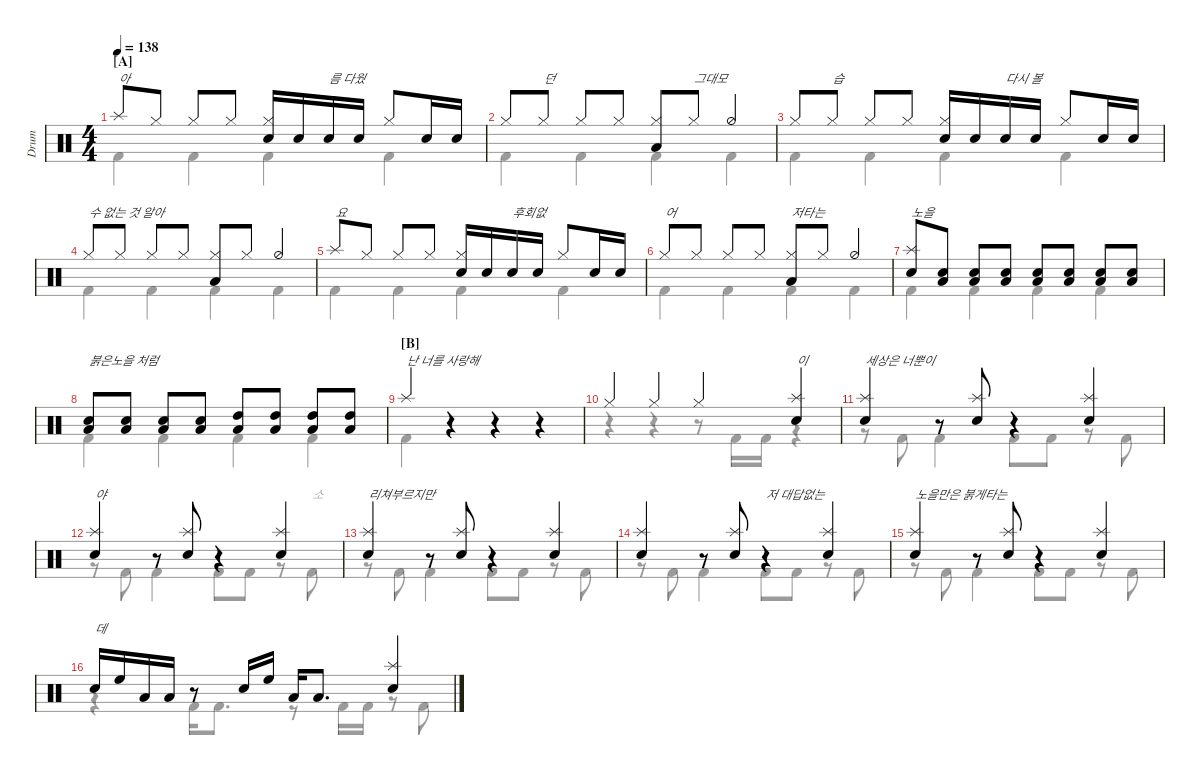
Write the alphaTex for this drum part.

\defaultSystemsLayout 4
\hideDynamics
\bracketExtendMode nobrackets
\track ("Drumkit" "Drum") {instrument percussion}
\staff {score}
\articulation defaults
\voice
\ts (4 4)
\section ("A" "")
\tempo 138
\clef neutral
\ks c "Splash (hit)".8{txt "아" dy mf beam Up} "Hi-Hat (closed)".8{beam Up} "Hi-Hat (closed)".8{beam Up} "Hi-Hat (closed)".8{beam Up}
("Hi-Hat (closed)" "Snare (hit) 2").16{beam Up} "Snare (hit) 2".16{beam Up} "Snare (hit) 2".16{txt "름 다웠" beam Up} "Snare (hit) 2".16{beam Up} "Hi-Hat (closed)".8{beam Up} "Snare (hit) 2".16{beam Up} "Snare (hit) 2".16{beam Up} |
"Hi-Hat (closed)".8{beam Up} "Hi-Hat (closed)".8{txt "던" beam Up} "Hi-Hat (closed)".8{beam Up} "Hi-Hat (closed)".8{beam Up} ("Hi-Hat (closed)" "Low Tom (hit)").8{beam Up} "Hi-Hat (closed)".8{txt "그대모" beam Up} "Hi-Hat (half)".4{beam Up} |
"Hi-Hat (closed)".8{beam Up} "Hi-Hat (closed)".8{txt "습" beam Up} "Hi-Hat (closed)".8{beam Up} "Hi-Hat (closed)".8{beam Up} ("Hi-Hat (closed)" "Snare (hit) 2").16{beam Up} "Snare (hit) 2".16{beam Up} "Snare (hit) 2".16{txt "다시 볼" beam Up} "Snare (hit) 2".16{beam Up} "Hi-Hat (closed)".8{beam Up} "Snare (hit) 2".16{beam Up} "Snare (hit) 2".16{beam Up} |
"Hi-Hat (closed)".8{txt "수 없는 것 알아" beam Up} "Hi-Hat (closed)".8{beam Up} "Hi-Hat (closed)".8{beam Up} "Hi-Hat (closed)".8{beam Up} ("Hi-Hat (closed)" "Low Tom (hit)").8{beam Up} "Hi-Hat (closed)".8{beam Up} "Hi-Hat (half)".4{beam Up} |
"Splash (hit)".8{txt "요" beam Up} "Hi-Hat (closed)".8{beam Up} "Hi-Hat (closed)".8{beam Up} "Hi-Hat (closed)".8{beam Up} ("Hi-Hat (closed)" "Snare (hit) 2").16{beam Up} "Snare (hit) 2".16{beam Up} "Snare (hit) 2".16{txt "후회없" beam Up} "Snare (hit) 2".16{beam Up} "Hi-Hat (closed)".8{beam Up} "Snare (hit) 2".16{beam Up} "Snare (hit) 2".16{beam Up} |
"Hi-Hat (closed)".8{txt "어" beam Up} "Hi-Hat (closed)".8{beam Up} "Hi-Hat (closed)".8{beam Up} "Hi-Hat (closed)".8{beam Up} ("Hi-Hat (closed)" "Low Tom (hit)").8{txt "저타는" beam Up} "Hi-Hat (closed)".8{beam Up} "Hi-Hat (half)".4{beam Up} |
("Splash (hit)" "Snare (hit) 2").8{txt "노을" beam Up} ("Snare (hit) 2" "Low Tom (hit)").8{beam Up} ("Snare (hit) 2" "Low Tom (hit)").8{beam Up} ("Snare (hit) 2" "Low Tom (hit)").8{beam Up} ("Snare (hit) 2" "Low Tom (hit)").8{beam Up} ("Snare (hit) 2" "Low Tom (hit)").8{beam Up} ("Snare (hit) 2" "Low Tom (hit)").8{beam Up} ("Snare (hit) 2" "Low Tom (hit)").8{beam Up} |
("Snare (hit) 2" "Low Tom (hit)").8{txt "붉은노을 처럼" beam Up} ("Snare (hit) 2" "Low Tom (hit)").8{beam Up} ("Snare (hit) 2" "Low Tom (hit)").8{beam Up} ("Snare (hit) 2" "Low Tom (hit)").8{beam Up} ("High Tom (hit)" "Low Tom (hit)").8{beam Up} ("High Tom (hit)" "Low Tom (hit)").8{beam Up} ("High Tom (hit)" "Low Tom (hit)").8{beam Up} ("High Tom (hit)" "Low Tom (hit)").8{beam Up} |
\section ("B" "")
"Splash (hit)".4{txt "난 너를 사랑해" beam Up} r.4{beam Up} r.4{beam Up} r.4{beam Up} |
"Hi-Hat (closed)".4{beam Up} "Hi-Hat (closed)".4{beam Up} "Hi-Hat (closed)".4{beam Up} ("Splash (hit)" "Snare (hit) 2").4{txt "이" beam Up} |
("Splash (hit)" "Snare (hit) 2").4{txt "세상은 너뿐이" beam Up} r.8{beam Up} ("Splash (hit)" "Snare (hit) 2").8{beam Up} r.4{beam Up} ("Splash (hit)" "Snare (hit) 2").4{beam Up} |
("Splash (hit)" "Snare (hit) 2").4{txt "야" beam Up} r.8{beam Up} ("Splash (hit)" "Snare (hit) 2").8{beam Up} r.4{beam Up} ("Splash (hit)" "Snare (hit) 2").4{beam Up} |
("Splash (hit)" "Snare (hit) 2").4{txt "리쳐부르지만" beam Up} r.8{beam Up} ("Splash (hit)" "Snare (hit) 2").8{beam Up} r.4{beam Up} ("Splash (hit)" "Snare (hit) 2").4{beam Up} |
("Splash (hit)" "Snare (hit) 2").4{beam Up} r.8{beam Up} ("Splash (hit)" "Snare (hit) 2").8{beam Up} r.4{txt "저 대답없는" beam Up} ("Splash (hit)" "Snare (hit) 2").4{beam Up} |
("Splash (hit)" "Snare (hit) 2").4{txt "노을만은 붉게타는" beam Up} r.8{beam Up} ("Splash (hit)" "Snare (hit) 2").8{beam Up} r.4{beam Up} ("Splash (hit)" "Snare (hit) 2").4{beam Up} |
"Snare (hit) 2".16{txt "데" beam Up} "High Floor Tom (hit)".16{beam Up} "Low Tom (hit)".16{beam Up} "Low Tom (hit)".16{beam Up} r.8{beam Up} "Snare (hit) 2".16{beam Up} "High Floor Tom (hit)".16{beam Up} "Low Tom (hit)".16{beam Up} "Low Tom (hit)".8{d beam Up} ("Snare (hit) 2" "Splash (hit)").4{beam Up}
\voice
\clef neutral
\ottava regular
\simile none
\ks c
|
|
|
|
|
|
|
|
|
|
|
|
|
|
|
\voice
\clef neutral
\ottava regular
\simile none
\ks c "Kick (hit) 2".4{dy mf beam Down} "Kick (hit) 2".4{beam Down} "Kick (hit) 2".4{beam Down} "Kick (hit) 2".4{beam Down}
|
"Kick (hit) 2".4{beam Down} "Kick (hit) 2".4{beam Down} "Kick (hit) 2".4{beam Down} "Kick (hit) 2".4{beam Down} |
"Kick (hit) 2".4{beam Down} "Kick (hit) 2".4{beam Down} "Kick (hit) 2".4{beam Down} "Kick (hit) 2".4{beam Down} |
"Kick (hit) 2".4{beam Down} "Kick (hit) 2".4{beam Down} "Kick (hit) 2".4{beam Down} "Kick (hit) 2".4{beam Down} |
"Kick (hit) 2".4{beam Down} "Kick (hit) 2".4{beam Down} "Kick (hit) 2".4{beam Down} "Kick (hit) 2".4{beam Down} |
"Kick (hit) 2".4{beam Down} "Kick (hit) 2".4{beam Down} "Kick (hit) 2".4{beam Down} "Kick (hit) 2".4{beam Down} |
"Kick (hit) 2".4{beam Down} "Kick (hit) 2".4{beam Down} "Kick (hit) 2".4{beam Down} "Kick (hit) 2".4{beam Down} |
"Kick (hit) 2".4{beam Down} "Kick (hit) 2".4{beam Down} "Kick (hit) 2".4{beam Down} "Kick (hit) 2".4{beam Down} |
"Kick (hit) 2".4{beam Down} r.4{beam Down} r.4{beam Down} r.4{beam Down} |
r.4{beam Down} r.4{beam Down} r.8{beam Down} "Kick (hit) 2".16{beam Down} "Kick (hit) 2".16{beam Down} r.4{beam Down} |
r.8{beam Down} "Kick (hit) 2".8{beam Down} "Kick (hit) 2".4{beam Down} "Kick (hit) 2".8{beam Down} "Kick (hit) 2".8{beam Down} r.8{beam Down} "Kick (hit) 2".8{beam Down} |
r.8{beam Down} "Kick (hit) 2".8{beam Down} "Kick (hit) 2".4{beam Down} "Kick (hit) 2".8{beam Down} "Kick (hit) 2".8{beam Down} r.8{beam Down} "Kick (hit) 2".8{txt "소" beam Down} |
r.8{beam Down} "Kick (hit) 2".8{beam Down} "Kick (hit) 2".4{beam Down} "Kick (hit) 2".8{beam Down} "Kick (hit) 2".8{beam Down} r.8{beam Down} "Kick (hit) 2".8{beam Down} |
r.8{beam Down} "Kick (hit) 2".8{beam Down} "Kick (hit) 2".4{beam Down} "Kick (hit) 2".8{beam Down} "Kick (hit) 2".8{beam Down} r.8{beam Down} "Kick (hit) 2".8{beam Down} |
r.8{beam Down} "Kick (hit) 2".8{beam Down} "Kick (hit) 2".4{beam Down} "Kick (hit) 2".8{beam Down} "Kick (hit) 2".8{beam Down} r.8{beam Down} "Kick (hit) 2".8{beam Down} |
r.4{beam Down} "Kick (hit) 2".16{beam Down} "Kick (hit) 2".8{d beam Down} r.8{beam Down} "Kick (hit) 2".16{beam Down} "Kick (hit) 2".16{beam Down} r.8{beam Down} "Kick (hit) 2".8{beam Down}
